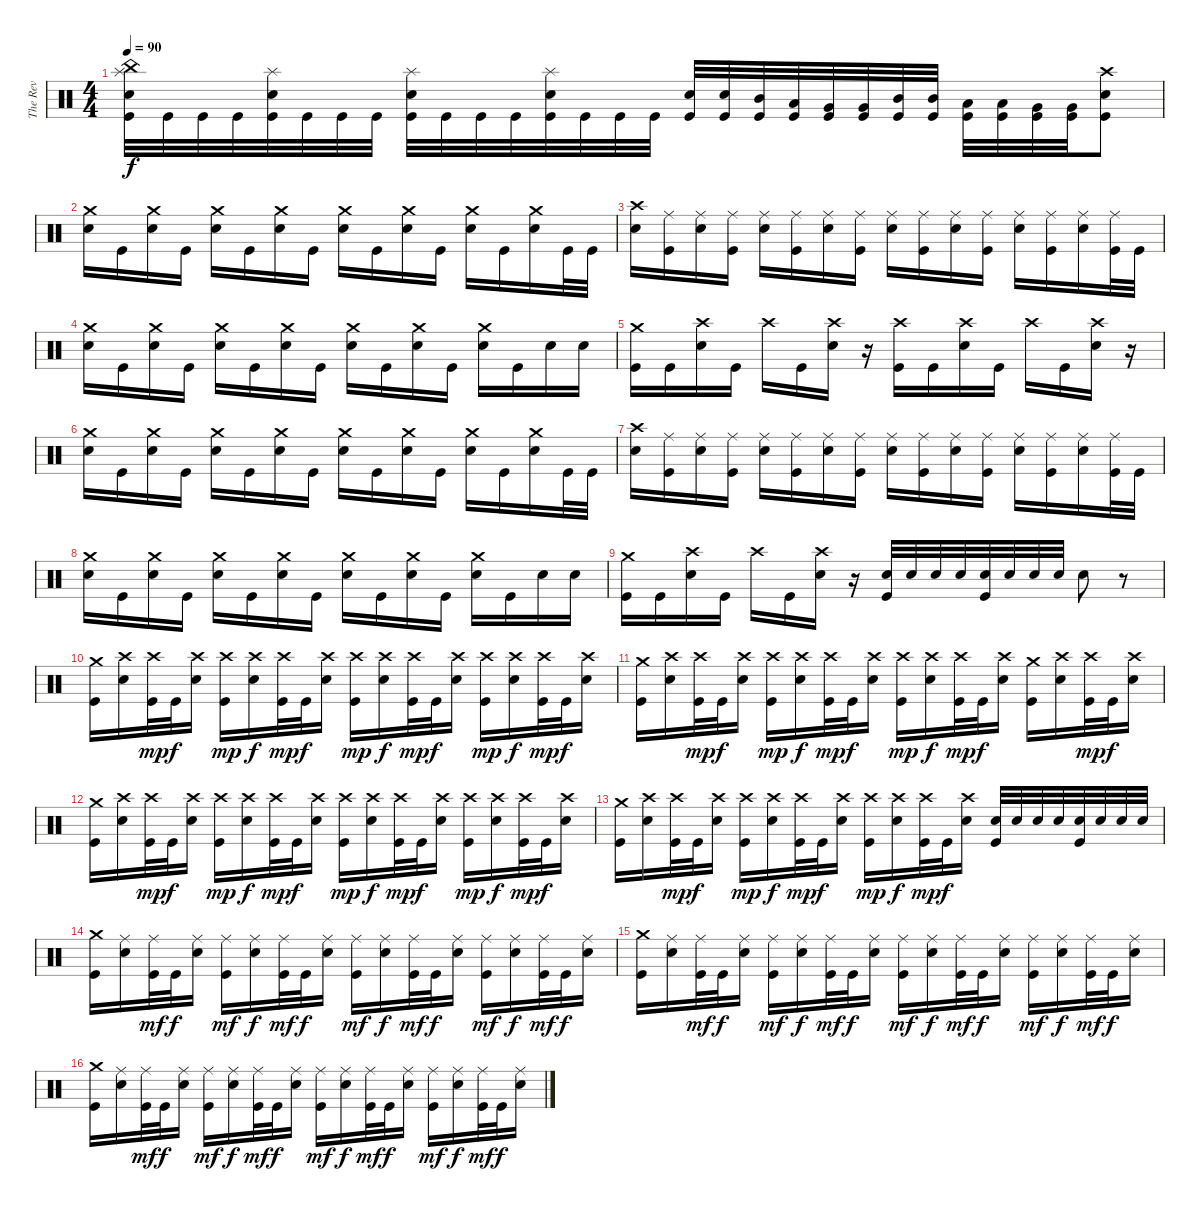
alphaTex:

\track ("The Rev" "The Rev") {instrument percussion}
\staff {score}
\articulation defaults
\ts (4 4)
\tempo 90
\clef neutral
\ks c
("China (hit)" "Splash (hit)" "Electric Snare (hit)" "Kick (hit)").32{dy f} "Kick (hit)".32 "Kick (hit)".32 "Kick (hit)".32 ("Splash (hit)" "Electric Snare (hit)" "Kick (hit)").32 "Kick (hit)".32 "Kick (hit)".32 "Kick (hit)".32 ("Splash (hit)" "Electric Snare (hit)" "Kick (hit)").32 "Kick (hit)".32 "Kick (hit)".32 "Kick (hit)".32 ("Splash (hit)" "Electric Snare (hit)" "Kick (hit)").32 "Kick (hit)".32 "Kick (hit)".32 "Kick (hit)".32 ("Electric Snare (hit)" "Kick (hit)").32 ("Electric Snare (hit)" "Kick (hit)").32 ("Mid Tom (hit)" "Kick (hit)").32 ("Low Tom (hit)" "Kick (hit)").32 ("Very Low Tom (hit)" "Kick (hit)").32 ("Very Low Tom (hit)" "Kick (hit)").32 ("Mid Tom (hit)" "Kick (hit)").32 ("Mid Tom (hit)" "Kick (hit)").32 ("Low Tom (hit)" "Kick (hit)").32 ("Low Tom (hit)" "Kick (hit)").32 ("Very Low Tom (hit)" "Kick (hit)").32 ("Very Low Tom (hit)" "Kick (hit)").32 ("Crash high (hit)" "Electric Snare (hit)" "Kick (hit)").8 |
("Crash medium (hit)" "Electric Snare (hit)").16 "Kick (hit)".16 ("Crash medium (hit)" "Electric Snare (hit)").16 "Kick (hit)".16 ("Crash medium (hit)" "Electric Snare (hit)").16 "Kick (hit)".16 ("Crash medium (hit)" "Electric Snare (hit)").16 "Kick (hit)".16 ("Crash medium (hit)" "Electric Snare (hit)").16 "Kick (hit)".16 ("Crash medium (hit)" "Electric Snare (hit)").16 "Kick (hit)".16 ("Crash medium (hit)" "Electric Snare (hit)").16 "Kick (hit)".16 ("Crash medium (hit)" "Electric Snare (hit)").16 "Kick (hit)".32 "Kick (hit)".32 |
("Crash high (hit)" "Electric Snare (hit)").16 ("Ride (middle)" "Kick (hit)").16 ("Ride (middle)" "Electric Snare (hit)").16 ("Ride (middle)" "Kick (hit)").16 ("Ride (middle)" "Electric Snare (hit)").16 ("Ride (middle)" "Kick (hit)").16 ("Ride (middle)" "Electric Snare (hit)").16 ("Ride (middle)" "Kick (hit)").16 ("Ride (middle)" "Electric Snare (hit)").16 ("Ride (middle)" "Kick (hit)").16 ("Ride (middle)" "Electric Snare (hit)").16 ("Ride (middle)" "Kick (hit)").16 ("Ride (middle)" "Electric Snare (hit)").16 ("Ride (middle)" "Kick (hit)").16 ("Ride (middle)" "Electric Snare (hit)").16 ("Ride (middle)" "Kick (hit)").32 "Kick (hit)".32 |
("Crash medium (hit)" "Electric Snare (hit)").16 "Kick (hit)".16 ("Crash medium (hit)" "Electric Snare (hit)").16 "Kick (hit)".16 ("Crash medium (hit)" "Electric Snare (hit)").16 "Kick (hit)".16 ("Crash medium (hit)" "Electric Snare (hit)").16 "Kick (hit)".16 ("Crash medium (hit)" "Electric Snare (hit)").16 "Kick (hit)".16 ("Crash medium (hit)" "Electric Snare (hit)").16 "Kick (hit)".16 ("Crash medium (hit)" "Electric Snare (hit)").16 "Kick (hit)".16 "Electric Snare (hit)".16 "Electric Snare (hit)".16 |
("Crash medium (hit)" "Kick (hit)").16 "Kick (hit)".16 ("Crash high (hit)" "Electric Snare (hit)").16 "Kick (hit)".16 "Crash high (hit)".16 "Kick (hit)".16 ("Crash high (hit)" "Electric Snare (hit)").16 r.16 ("Crash high (hit)" "Kick (hit)").16 "Kick (hit)".16 ("Crash high (hit)" "Electric Snare (hit)").16 "Kick (hit)".16 "Crash high (hit)".16 "Kick (hit)".16 ("Crash high (hit)" "Electric Snare (hit)").16 r.16 |
("Crash medium (hit)" "Electric Snare (hit)").16 "Kick (hit)".16 ("Crash medium (hit)" "Electric Snare (hit)").16 "Kick (hit)".16 ("Crash medium (hit)" "Electric Snare (hit)").16 "Kick (hit)".16 ("Crash medium (hit)" "Electric Snare (hit)").16 "Kick (hit)".16 ("Crash medium (hit)" "Electric Snare (hit)").16 "Kick (hit)".16 ("Crash medium (hit)" "Electric Snare (hit)").16 "Kick (hit)".16 ("Crash medium (hit)" "Electric Snare (hit)").16 "Kick (hit)".16 ("Crash medium (hit)" "Electric Snare (hit)").16 "Kick (hit)".32 "Kick (hit)".32 |
("Crash high (hit)" "Electric Snare (hit)").16 ("Ride (middle)" "Kick (hit)").16 ("Ride (middle)" "Electric Snare (hit)").16 ("Ride (middle)" "Kick (hit)").16 ("Ride (middle)" "Electric Snare (hit)").16 ("Ride (middle)" "Kick (hit)").16 ("Ride (middle)" "Electric Snare (hit)").16 ("Ride (middle)" "Kick (hit)").16 ("Ride (middle)" "Electric Snare (hit)").16 ("Ride (middle)" "Kick (hit)").16 ("Ride (middle)" "Electric Snare (hit)").16 ("Ride (middle)" "Kick (hit)").16 ("Ride (middle)" "Electric Snare (hit)").16 ("Ride (middle)" "Kick (hit)").16 ("Ride (middle)" "Electric Snare (hit)").16 ("Ride (middle)" "Kick (hit)").32 "Kick (hit)".32 |
("Crash medium (hit)" "Electric Snare (hit)").16 "Kick (hit)".16 ("Crash medium (hit)" "Electric Snare (hit)").16 "Kick (hit)".16 ("Crash medium (hit)" "Electric Snare (hit)").16 "Kick (hit)".16 ("Crash medium (hit)" "Electric Snare (hit)").16 "Kick (hit)".16 ("Crash medium (hit)" "Electric Snare (hit)").16 "Kick (hit)".16 ("Crash medium (hit)" "Electric Snare (hit)").16 "Kick (hit)".16 ("Crash medium (hit)" "Electric Snare (hit)").16 "Kick (hit)".16 "Electric Snare (hit)".16 "Electric Snare (hit)".16 |
("Crash medium (hit)" "Kick (hit)").16 "Kick (hit)".16 ("Crash high (hit)" "Electric Snare (hit)").16 "Kick (hit)".16 "Crash high (hit)".16 "Kick (hit)".16 ("Crash high (hit)" "Electric Snare (hit)").16 r.16 ("Electric Snare (hit)" "Kick (hit)").32 "Electric Snare (hit)".32 "Electric Snare (hit)".32 "Electric Snare (hit)".32 ("Electric Snare (hit)" "Kick (hit)").32 "Electric Snare (hit)".32 "Electric Snare (hit)".32 "Electric Snare (hit)".32 "Electric Snare (hit)".8 r.8 |
("Crash medium (hit)" "Kick (hit)").16 ("Crash high (hit)" "Electric Snare (hit)").16 ("Crash high (hit)" "Kick (hit)").32{dy mp} "Kick (hit)".32{dy f} ("Crash high (hit)" "Electric Snare (hit)").16 ("Crash high (hit)" "Kick (hit)").16{dy mp} ("Crash high (hit)" "Electric Snare (hit)").16{dy f} ("Crash high (hit)" "Kick (hit)").32{dy mp} "Kick (hit)".32{dy f} ("Crash high (hit)" "Electric Snare (hit)").16 ("Crash high (hit)" "Kick (hit)").16{dy mp} ("Crash high (hit)" "Electric Snare (hit)").16{dy f} ("Crash high (hit)" "Kick (hit)").32{dy mp} "Kick (hit)".32{dy f} ("Crash high (hit)" "Electric Snare (hit)").16 ("Crash high (hit)" "Kick (hit)").16{dy mp} ("Crash high (hit)" "Electric Snare (hit)").16{dy f} ("Crash high (hit)" "Kick (hit)").32{dy mp} "Kick (hit)".32{dy f} ("Crash high (hit)" "Electric Snare (hit)").16 |
("Crash medium (hit)" "Kick (hit)").16 ("Crash high (hit)" "Electric Snare (hit)").16 ("Crash high (hit)" "Kick (hit)").32{dy mp} "Kick (hit)".32{dy f} ("Crash high (hit)" "Electric Snare (hit)").16 ("Crash high (hit)" "Kick (hit)").16{dy mp} ("Crash high (hit)" "Electric Snare (hit)").16{dy f} ("Crash high (hit)" "Kick (hit)").32{dy mp} "Kick (hit)".32{dy f} ("Crash high (hit)" "Electric Snare (hit)").16 ("Crash high (hit)" "Kick (hit)").16{dy mp} ("Crash high (hit)" "Electric Snare (hit)").16{dy f} ("Crash high (hit)" "Kick (hit)").32{dy mp} "Kick (hit)".32{dy f} ("Crash high (hit)" "Electric Snare (hit)").16 ("Crash medium (hit)" "Kick (hit)").16 ("Crash high (hit)" "Electric Snare (hit)").16 ("Crash high (hit)" "Kick (hit)").32{dy mp} "Kick (hit)".32{dy f} ("Crash high (hit)" "Electric Snare (hit)").16 |
("Crash medium (hit)" "Kick (hit)").16 ("Crash high (hit)" "Electric Snare (hit)").16 ("Crash high (hit)" "Kick (hit)").32{dy mp} "Kick (hit)".32{dy f} ("Crash high (hit)" "Electric Snare (hit)").16 ("Crash high (hit)" "Kick (hit)").16{dy mp} ("Crash high (hit)" "Electric Snare (hit)").16{dy f} ("Crash high (hit)" "Kick (hit)").32{dy mp} "Kick (hit)".32{dy f} ("Crash high (hit)" "Electric Snare (hit)").16 ("Crash high (hit)" "Kick (hit)").16{dy mp} ("Crash high (hit)" "Electric Snare (hit)").16{dy f} ("Crash high (hit)" "Kick (hit)").32{dy mp} "Kick (hit)".32{dy f} ("Crash high (hit)" "Electric Snare (hit)").16 ("Crash high (hit)" "Kick (hit)").16{dy mp} ("Crash high (hit)" "Electric Snare (hit)").16{dy f} ("Crash high (hit)" "Kick (hit)").32{dy mp} "Kick (hit)".32{dy f} ("Crash high (hit)" "Electric Snare (hit)").16 |
("Crash medium (hit)" "Kick (hit)").16 ("Crash high (hit)" "Electric Snare (hit)").16 ("Crash high (hit)" "Kick (hit)").32{dy mp} "Kick (hit)".32{dy f} ("Crash high (hit)" "Electric Snare (hit)").16 ("Crash high (hit)" "Kick (hit)").16{dy mp} ("Crash high (hit)" "Electric Snare (hit)").16{dy f} ("Crash high (hit)" "Kick (hit)").32{dy mp} "Kick (hit)".32{dy f} ("Crash high (hit)" "Electric Snare (hit)").16 ("Crash high (hit)" "Kick (hit)").16{dy mp} ("Crash high (hit)" "Electric Snare (hit)").16{dy f} ("Crash high (hit)" "Kick (hit)").32{dy mp} "Kick (hit)".32{dy f} ("Crash high (hit)" "Electric Snare (hit)").16 ("Electric Snare (hit)" "Kick (hit)").32 "Electric Snare (hit)".32 "Electric Snare (hit)".32 "Electric Snare (hit)".32 ("Electric Snare (hit)" "Kick (hit)").32 "Electric Snare (hit)".32 "Electric Snare (hit)".32 "Electric Snare (hit)".32 |
("Crash medium (hit)" "Kick (hit)").16 ("Ride (middle)" "Electric Snare (hit)").16 ("Ride (middle)" "Kick (hit)").32{dy mf} "Kick (hit)".32{dy f} ("Ride (middle)" "Electric Snare (hit)").16 ("Ride (middle)" "Kick (hit)").16{dy mf} ("Ride (middle)" "Electric Snare (hit)").16{dy f} ("Ride (middle)" "Kick (hit)").32{dy mf} "Kick (hit)".32{dy f} ("Ride (middle)" "Electric Snare (hit)").16 ("Ride (middle)" "Kick (hit)").16{dy mf} ("Ride (middle)" "Electric Snare (hit)").16{dy f} ("Ride (middle)" "Kick (hit)").32{dy mf} "Kick (hit)".32{dy f} ("Ride (middle)" "Electric Snare (hit)").16 ("Ride (middle)" "Kick (hit)").16{dy mf} ("Ride (middle)" "Electric Snare (hit)").16{dy f} ("Ride (middle)" "Kick (hit)").32{dy mf} "Kick (hit)".32{dy f} ("Ride (middle)" "Electric Snare (hit)").16 |
("Crash medium (hit)" "Kick (hit)").16 ("Ride (middle)" "Electric Snare (hit)").16 ("Ride (middle)" "Kick (hit)").32{dy mf} "Kick (hit)".32{dy f} ("Ride (middle)" "Electric Snare (hit)").16 ("Ride (middle)" "Kick (hit)").16{dy mf} ("Ride (middle)" "Electric Snare (hit)").16{dy f} ("Ride (middle)" "Kick (hit)").32{dy mf} "Kick (hit)".32{dy f} ("Ride (middle)" "Electric Snare (hit)").16 ("Ride (middle)" "Kick (hit)").16{dy mf} ("Ride (middle)" "Electric Snare (hit)").16{dy f} ("Ride (middle)" "Kick (hit)").32{dy mf} "Kick (hit)".32{dy f} ("Ride (middle)" "Electric Snare (hit)").16 ("Ride (middle)" "Kick (hit)").16{dy mf} ("Ride (middle)" "Electric Snare (hit)").16{dy f} ("Ride (middle)" "Kick (hit)").32{dy mf} "Kick (hit)".32{dy f} ("Ride (middle)" "Electric Snare (hit)").16 |
("Crash medium (hit)" "Kick (hit)").16 ("Ride (middle)" "Electric Snare (hit)").16 ("Ride (middle)" "Kick (hit)").32{dy mf} "Kick (hit)".32{dy f} ("Ride (middle)" "Electric Snare (hit)").16 ("Ride (middle)" "Kick (hit)").16{dy mf} ("Ride (middle)" "Electric Snare (hit)").16{dy f} ("Ride (middle)" "Kick (hit)").32{dy mf} "Kick (hit)".32{dy f} ("Ride (middle)" "Electric Snare (hit)").16 ("Ride (middle)" "Kick (hit)").16{dy mf} ("Ride (middle)" "Electric Snare (hit)").16{dy f} ("Ride (middle)" "Kick (hit)").32{dy mf} "Kick (hit)".32{dy f} ("Ride (middle)" "Electric Snare (hit)").16 ("Ride (middle)" "Kick (hit)").16{dy mf} ("Ride (middle)" "Electric Snare (hit)").16{dy f} ("Ride (middle)" "Kick (hit)").32{dy mf} "Kick (hit)".32{dy f} ("Ride (middle)" "Electric Snare (hit)").16
